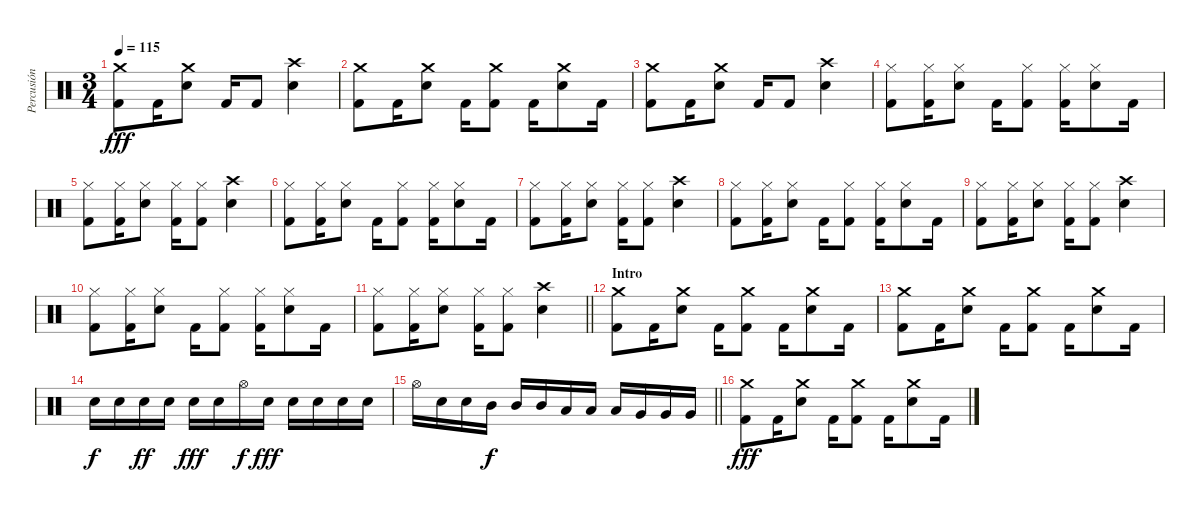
\track ("Percusión" "Percusión") {instrument percussion}
\staff {score}
\articulation defaults
\ts (3 4)
\tempo 115
\clef neutral
\ks c
("Crash medium (hit)" "Kick (hit) 2").8{dy fff} "Kick (hit) 2".16 ("Crash medium (hit)" "Electric Snare (hit)").8 "Kick (hit) 2".16 "Kick (hit) 2".8 ("Crash high (hit)" "Electric Snare (hit)").4 |
("Crash medium (hit)" "Kick (hit) 2").8 "Kick (hit) 2".16 ("Crash medium (hit)" "Electric Snare (hit)").8 "Kick (hit) 2".16 ("Crash medium (hit)" "Kick (hit) 2").8 "Kick (hit) 2".16 ("Crash medium (hit)" "Electric Snare (hit)").8 "Kick (hit) 2".16 |
("Crash medium (hit)" "Kick (hit) 2").8 "Kick (hit) 2".16 ("Crash medium (hit)" "Electric Snare (hit)").8 "Kick (hit) 2".16 "Kick (hit) 2".8 ("Crash high (hit)" "Electric Snare (hit)").4 |
("Hi-Hat (closed)" "Kick (hit) 2").8 ("Hi-Hat (closed)" "Kick (hit) 2").16 ("Hi-Hat (closed)" "Electric Snare (hit)").8 "Kick (hit) 2".16 ("Hi-Hat (closed)" "Kick (hit) 2").8 ("Hi-Hat (closed)" "Kick (hit) 2").16 ("Hi-Hat (closed)" "Electric Snare (hit)").8 "Kick (hit) 2".16 |
("Hi-Hat (closed)" "Kick (hit) 2").8 ("Hi-Hat (closed)" "Kick (hit) 2").16 ("Hi-Hat (closed)" "Electric Snare (hit)").8 ("Hi-Hat (closed)" "Kick (hit) 2").16 ("Hi-Hat (closed)" "Kick (hit) 2").8 ("Crash high (hit)" "Electric Snare (hit)").4 |
("Hi-Hat (closed)" "Kick (hit) 2").8 ("Hi-Hat (closed)" "Kick (hit) 2").16 ("Hi-Hat (closed)" "Electric Snare (hit)").8 "Kick (hit) 2".16 ("Hi-Hat (closed)" "Kick (hit) 2").8 ("Hi-Hat (closed)" "Kick (hit) 2").16 ("Hi-Hat (closed)" "Electric Snare (hit)").8 "Kick (hit) 2".16 |
("Hi-Hat (closed)" "Kick (hit) 2").8 ("Hi-Hat (closed)" "Kick (hit) 2").16 ("Hi-Hat (closed)" "Electric Snare (hit)").8 ("Hi-Hat (closed)" "Kick (hit) 2").16 ("Hi-Hat (closed)" "Kick (hit) 2").8 ("Crash high (hit)" "Electric Snare (hit)").4 |
("Hi-Hat (closed)" "Kick (hit) 2").8 ("Hi-Hat (closed)" "Kick (hit) 2").16 ("Hi-Hat (closed)" "Electric Snare (hit)").8 "Kick (hit) 2".16 ("Hi-Hat (closed)" "Kick (hit) 2").8 ("Hi-Hat (closed)" "Kick (hit) 2").16 ("Hi-Hat (closed)" "Electric Snare (hit)").8 "Kick (hit) 2".16 |
("Hi-Hat (closed)" "Kick (hit) 2").8 ("Hi-Hat (closed)" "Kick (hit) 2").16 ("Hi-Hat (closed)" "Electric Snare (hit)").8 ("Hi-Hat (closed)" "Kick (hit) 2").16 ("Hi-Hat (closed)" "Kick (hit) 2").8 ("Crash high (hit)" "Electric Snare (hit)").4 |
("Hi-Hat (closed)" "Kick (hit) 2").8 ("Hi-Hat (closed)" "Kick (hit) 2").16 ("Hi-Hat (closed)" "Electric Snare (hit)").8 "Kick (hit) 2".16 ("Hi-Hat (closed)" "Kick (hit) 2").8 ("Hi-Hat (closed)" "Kick (hit) 2").16 ("Hi-Hat (closed)" "Electric Snare (hit)").8 "Kick (hit) 2".16 |
\barLineRight lightlight
("Hi-Hat (closed)" "Kick (hit) 2").8 ("Hi-Hat (closed)" "Kick (hit) 2").16 ("Hi-Hat (closed)" "Electric Snare (hit)").8 ("Hi-Hat (closed)" "Kick (hit) 2").16 ("Hi-Hat (closed)" "Kick (hit) 2").8 ("Crash high (hit)" "Electric Snare (hit)").4 |
\section ("" "Intro")
("Crash medium (hit)" "Kick (hit) 2").8 "Kick (hit) 2".16 ("Crash medium (hit)" "Electric Snare (hit)").8 "Kick (hit) 2".16 ("Crash medium (hit)" "Kick (hit) 2").8 "Kick (hit) 2".16 ("Crash medium (hit)" "Electric Snare (hit)").8 "Kick (hit) 2".16 |
("Crash medium (hit)" "Kick (hit) 2").8 "Kick (hit) 2".16 ("Crash medium (hit)" "Electric Snare (hit)").8 "Kick (hit) 2".16 ("Crash medium (hit)" "Kick (hit) 2").8 "Kick (hit) 2".16 ("Crash medium (hit)" "Electric Snare (hit)").8 "Kick (hit) 2".16 |
"Electric Snare (hit)".16{dy f} "Electric Snare (hit)".16 "Electric Snare (hit)".16{dy ff} "Electric Snare (hit)".16 "Electric Snare (hit)".16{dy fff} "Electric Snare (hit)".16 "Hi-Hat (open)".16{dy f} "Electric Snare (hit)".16{dy fff} "Electric Snare (hit)".16 "Electric Snare (hit)".16 "Electric Snare (hit)".16 "Electric Snare (hit)".16 |
\barLineRight lightlight "Hi-Hat (open)".16 "Electric Snare (hit)".16 "Electric Snare (hit)".16 "Mid Tom (hit)".16{dy f} "Mid Tom (hit)".16 "Mid Tom (hit)".16 "Low Tom (hit)".16 "Low Tom (hit)".16 "Low Tom (hit)".16 "Very Low Tom (hit)".16 "Very Low Tom (hit)".16 "Very Low Tom (hit)".16
|
("Crash medium (hit)" "Kick (hit) 2").8{dy fff} "Kick (hit) 2".16 ("Crash medium (hit)" "Electric Snare (hit)").8 "Kick (hit) 2".16 ("Crash medium (hit)" "Kick (hit) 2").8 "Kick (hit) 2".16 ("Crash medium (hit)" "Electric Snare (hit)").8 "Kick (hit) 2".16
